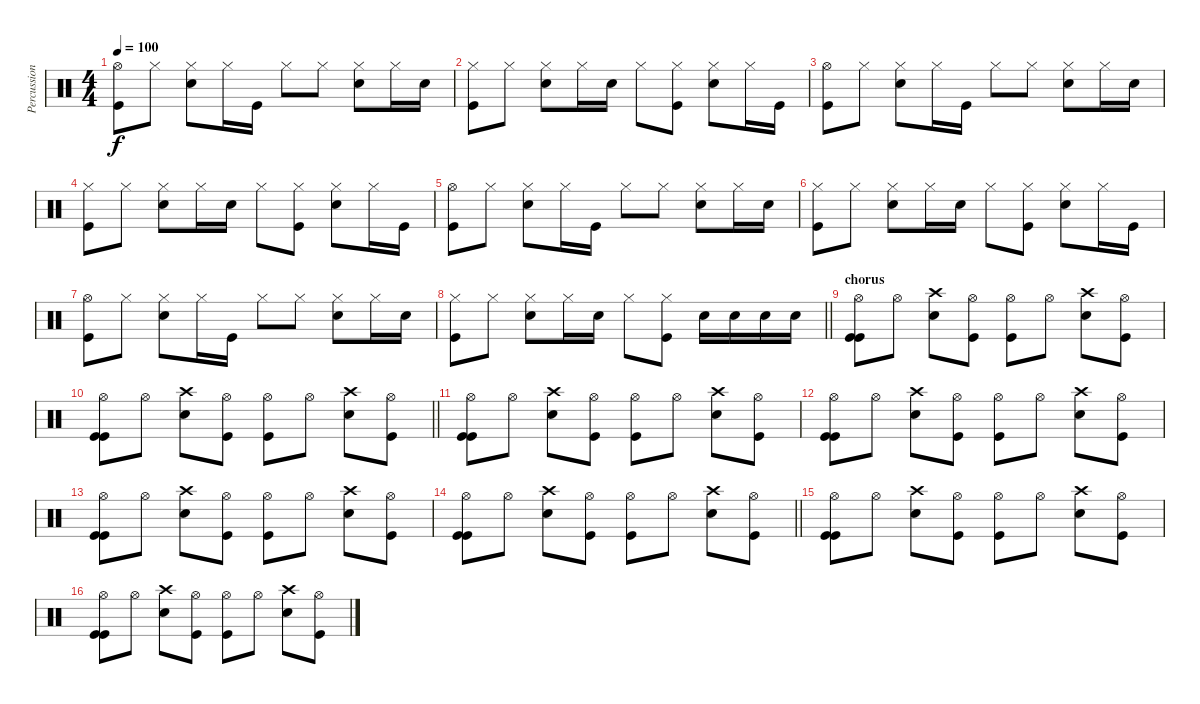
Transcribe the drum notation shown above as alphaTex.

\track ("Percussion" "Percussion") {instrument percussion}
\staff {score}
\articulation defaults
\ts (4 4)
\tempo 100
\clef neutral
\ks c
("Hi-Hat (open)" "Kick (hit)").8{dy f} "Hi-Hat (closed)".8 ("Hi-Hat (closed)" "Snare (hit) 2").8 "Hi-Hat (closed)".16 "Kick (hit)".16 "Hi-Hat (closed)".8 "Hi-Hat (closed)".8 ("Hi-Hat (closed)" "Snare (hit) 2").8 "Hi-Hat (closed)".16 "Snare (hit) 2".16 |
("Hi-Hat (closed)" "Kick (hit)").8 "Hi-Hat (closed)".8 ("Hi-Hat (closed)" "Snare (hit) 2").8 "Hi-Hat (closed)".16 "Snare (hit) 2".16 "Hi-Hat (closed)".8 ("Hi-Hat (closed)" "Kick (hit)").8 ("Hi-Hat (closed)" "Snare (hit) 2").8 "Hi-Hat (closed)".16 "Kick (hit)".16 |
("Hi-Hat (open)" "Kick (hit)").8 "Hi-Hat (closed)".8 ("Hi-Hat (closed)" "Snare (hit) 2").8 "Hi-Hat (closed)".16 "Kick (hit)".16 "Hi-Hat (closed)".8 "Hi-Hat (closed)".8 ("Hi-Hat (closed)" "Snare (hit) 2").8 "Hi-Hat (closed)".16 "Snare (hit) 2".16 |
("Hi-Hat (closed)" "Kick (hit)").8 "Hi-Hat (closed)".8 ("Hi-Hat (closed)" "Snare (hit) 2").8 "Hi-Hat (closed)".16 "Snare (hit) 2".16 "Hi-Hat (closed)".8 ("Hi-Hat (closed)" "Kick (hit)").8 ("Hi-Hat (closed)" "Snare (hit) 2").8 "Hi-Hat (closed)".16 "Kick (hit)".16 |
("Hi-Hat (open)" "Kick (hit)").8 "Hi-Hat (closed)".8 ("Hi-Hat (closed)" "Snare (hit) 2").8 "Hi-Hat (closed)".16 "Kick (hit)".16 "Hi-Hat (closed)".8 "Hi-Hat (closed)".8 ("Hi-Hat (closed)" "Snare (hit) 2").8 "Hi-Hat (closed)".16 "Snare (hit) 2".16 |
("Hi-Hat (closed)" "Kick (hit)").8 "Hi-Hat (closed)".8 ("Hi-Hat (closed)" "Snare (hit) 2").8 "Hi-Hat (closed)".16 "Snare (hit) 2".16 "Hi-Hat (closed)".8 ("Hi-Hat (closed)" "Kick (hit)").8 ("Hi-Hat (closed)" "Snare (hit) 2").8 "Hi-Hat (closed)".16 "Kick (hit)".16 |
("Hi-Hat (open)" "Kick (hit)").8 "Hi-Hat (closed)".8 ("Hi-Hat (closed)" "Snare (hit) 2").8 "Hi-Hat (closed)".16 "Kick (hit)".16 "Hi-Hat (closed)".8 "Hi-Hat (closed)".8 ("Hi-Hat (closed)" "Snare (hit) 2").8 "Hi-Hat (closed)".16 "Snare (hit) 2".16 |
\barLineRight lightlight
("Hi-Hat (closed)" "Kick (hit)").8 "Hi-Hat (closed)".8 ("Hi-Hat (closed)" "Snare (hit) 2").8 "Hi-Hat (closed)".16 "Snare (hit) 2".16 "Hi-Hat (closed)".8 ("Hi-Hat (closed)" "Kick (hit)").8 "Snare (hit) 2".16 "Snare (hit) 2".16 "Snare (hit) 2".16 "Snare (hit) 2".16 |
\section ("" "chorus")
("Hi-Hat (open)" "Kick (hit)" "Kick (hit)").8 "Hi-Hat (open)".8 ("Crash high (hit)" "Snare (hit) 2").8 ("Hi-Hat (open)" "Kick (hit)").8 ("Hi-Hat (open)" "Kick (hit)").8 "Hi-Hat (open)".8 ("Crash high (hit)" "Snare (hit) 2").8 ("Hi-Hat (open)" "Kick (hit)").8 |
\barLineRight lightlight
("Hi-Hat (open)" "Kick (hit)" "Kick (hit)").8 "Hi-Hat (open)".8 ("Crash high (hit)" "Snare (hit) 2").8 ("Hi-Hat (open)" "Kick (hit)").8 ("Hi-Hat (open)" "Kick (hit)").8 "Hi-Hat (open)".8 ("Crash high (hit)" "Snare (hit) 2").8 ("Hi-Hat (open)" "Kick (hit)").8 |
("Hi-Hat (open)" "Kick (hit)" "Kick (hit)").8 "Hi-Hat (open)".8 ("Crash high (hit)" "Snare (hit) 2").8 ("Hi-Hat (open)" "Kick (hit)").8 ("Hi-Hat (open)" "Kick (hit)").8 "Hi-Hat (open)".8 ("Crash high (hit)" "Snare (hit) 2").8 ("Hi-Hat (open)" "Kick (hit)").8 |
("Hi-Hat (open)" "Kick (hit)" "Kick (hit)").8 "Hi-Hat (open)".8 ("Crash high (hit)" "Snare (hit) 2").8 ("Hi-Hat (open)" "Kick (hit)").8 ("Hi-Hat (open)" "Kick (hit)").8 "Hi-Hat (open)".8 ("Crash high (hit)" "Snare (hit) 2").8 ("Hi-Hat (open)" "Kick (hit)").8 |
("Hi-Hat (open)" "Kick (hit)" "Kick (hit)").8 "Hi-Hat (open)".8 ("Crash high (hit)" "Snare (hit) 2").8 ("Hi-Hat (open)" "Kick (hit)").8 ("Hi-Hat (open)" "Kick (hit)").8 "Hi-Hat (open)".8 ("Crash high (hit)" "Snare (hit) 2").8 ("Hi-Hat (open)" "Kick (hit)").8 |
\barLineRight lightlight
("Hi-Hat (open)" "Kick (hit)" "Kick (hit)").8 "Hi-Hat (open)".8 ("Crash high (hit)" "Snare (hit) 2").8 ("Hi-Hat (open)" "Kick (hit)").8 ("Hi-Hat (open)" "Kick (hit)").8 "Hi-Hat (open)".8 ("Crash high (hit)" "Snare (hit) 2").8 ("Hi-Hat (open)" "Kick (hit)").8 |
("Hi-Hat (open)" "Kick (hit)" "Kick (hit)").8 "Hi-Hat (open)".8 ("Crash high (hit)" "Snare (hit) 2").8 ("Hi-Hat (open)" "Kick (hit)").8 ("Hi-Hat (open)" "Kick (hit)").8 "Hi-Hat (open)".8 ("Crash high (hit)" "Snare (hit) 2").8 ("Hi-Hat (open)" "Kick (hit)").8 |
("Hi-Hat (open)" "Kick (hit)" "Kick (hit)").8 "Hi-Hat (open)".8 ("Crash high (hit)" "Snare (hit) 2").8 ("Hi-Hat (open)" "Kick (hit)").8 ("Hi-Hat (open)" "Kick (hit)").8 "Hi-Hat (open)".8 ("Crash high (hit)" "Snare (hit) 2").8 ("Hi-Hat (open)" "Kick (hit)").8
